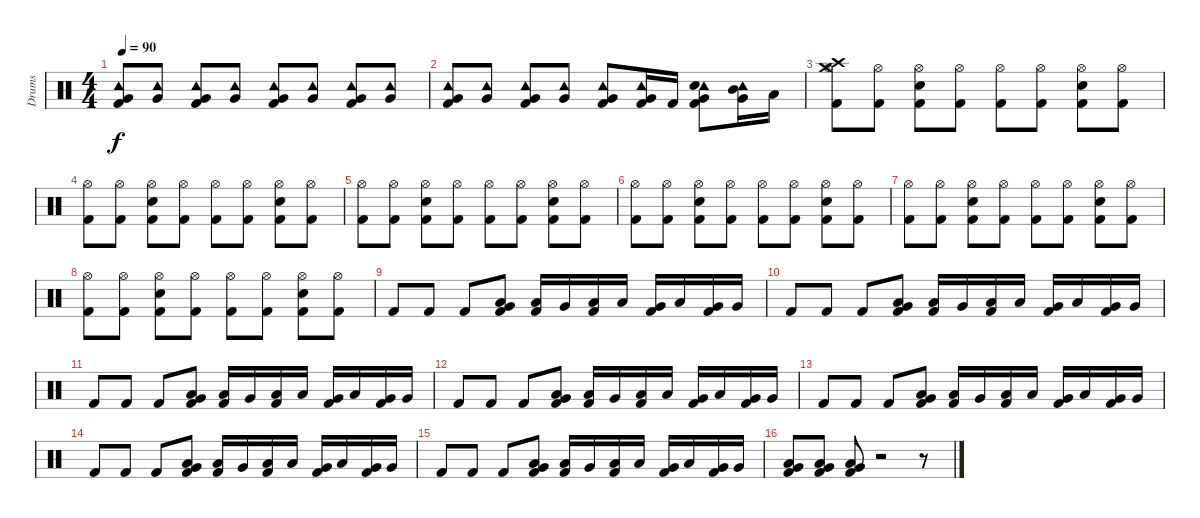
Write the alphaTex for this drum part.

\track ("Drums" "Drums") {instrument percussion}
\staff {score}
\articulation defaults
\ts (4 4)
\tempo 90
\clef neutral
\ks c
("Tambourine (hit)" "Kick (hit) 2" "Very Low Tom (hit)").8{dy f} ("Tambourine (hit)" "Very Low Tom (hit)").8 ("Tambourine (hit)" "Kick (hit) 2" "Very Low Tom (hit)").8 ("Tambourine (hit)" "Very Low Tom (hit)").8 ("Tambourine (hit)" "Kick (hit) 2" "Very Low Tom (hit)").8 ("Tambourine (hit)" "Very Low Tom (hit)").8 ("Tambourine (hit)" "Kick (hit) 2" "Very Low Tom (hit)").8 ("Tambourine (hit)" "Very Low Tom (hit)").8 |
("Tambourine (hit)" "Kick (hit) 2" "Very Low Tom (hit)").8 ("Tambourine (hit)" "Very Low Tom (hit)").8 ("Tambourine (hit)" "Kick (hit) 2" "Very Low Tom (hit)").8 ("Tambourine (hit)" "Very Low Tom (hit)").8 ("Tambourine (hit)" "Kick (hit) 2" "Very Low Tom (hit)").8 ("Tambourine (hit)" "Kick (hit) 2" "Very Low Tom (hit)").16 "Kick (hit) 2".16 ("Tambourine (hit)" "Snare (hit) 2" "Very Low Tom (hit)" "Kick (hit) 2").8 ("Tambourine (hit)" "Mid Tom (hit)" "Very Low Tom (hit)").16 "Low Tom (hit)".16 |
("Crash medium (hit)" "Crash high (hit)" "Kick (hit) 2" "Hi-Hat (open)").8 ("Kick (hit) 2" "Hi-Hat (open)").8 ("Snare (hit) 2" "Kick (hit) 2" "Hi-Hat (open)").8 ("Kick (hit) 2" "Hi-Hat (open)").8 ("Kick (hit) 2" "Hi-Hat (open)").8 ("Kick (hit) 2" "Hi-Hat (open)").8 ("Kick (hit) 2" "Snare (hit) 2" "Hi-Hat (open)").8 ("Kick (hit) 2" "Hi-Hat (open)").8 |
("Kick (hit) 2" "Hi-Hat (open)").8 ("Kick (hit) 2" "Hi-Hat (open)").8 ("Kick (hit) 2" "Snare (hit) 2" "Hi-Hat (open)").8 ("Kick (hit) 2" "Hi-Hat (open)").8 ("Kick (hit) 2" "Hi-Hat (open)").8 ("Kick (hit) 2" "Hi-Hat (open)").8 ("Kick (hit) 2" "Snare (hit) 2" "Hi-Hat (open)").8 ("Kick (hit) 2" "Hi-Hat (open)").8 |
("Kick (hit) 2" "Hi-Hat (open)").8 ("Kick (hit) 2" "Hi-Hat (open)").8 ("Kick (hit) 2" "Snare (hit) 2" "Hi-Hat (open)").8 ("Kick (hit) 2" "Hi-Hat (open)").8 ("Kick (hit) 2" "Hi-Hat (open)").8 ("Kick (hit) 2" "Hi-Hat (open)").8 ("Kick (hit) 2" "Snare (hit) 2" "Hi-Hat (open)").8 ("Kick (hit) 2" "Hi-Hat (open)").8 |
("Kick (hit) 2" "Hi-Hat (open)").8 ("Kick (hit) 2" "Hi-Hat (open)").8 ("Kick (hit) 2" "Snare (hit) 2" "Hi-Hat (open)").8 ("Kick (hit) 2" "Hi-Hat (open)").8 ("Kick (hit) 2" "Hi-Hat (open)").8 ("Kick (hit) 2" "Hi-Hat (open)").8 ("Kick (hit) 2" "Snare (hit) 2" "Hi-Hat (open)").8 ("Kick (hit) 2" "Hi-Hat (open)").8 |
("Kick (hit) 2" "Hi-Hat (open)").8 ("Kick (hit) 2" "Hi-Hat (open)").8 ("Kick (hit) 2" "Snare (hit) 2" "Hi-Hat (open)").8 ("Kick (hit) 2" "Hi-Hat (open)").8 ("Kick (hit) 2" "Hi-Hat (open)").8 ("Kick (hit) 2" "Hi-Hat (open)").8 ("Kick (hit) 2" "Snare (hit) 2" "Hi-Hat (open)").8 ("Kick (hit) 2" "Hi-Hat (open)").8 |
("Kick (hit) 2" "Hi-Hat (open)").8 ("Kick (hit) 2" "Hi-Hat (open)").8 ("Kick (hit) 2" "Snare (hit) 2" "Hi-Hat (open)").8 ("Kick (hit) 2" "Hi-Hat (open)").8 ("Kick (hit) 2" "Hi-Hat (open)").8 ("Kick (hit) 2" "Hi-Hat (open)").8 ("Kick (hit) 2" "Snare (hit) 2" "Hi-Hat (open)").8 ("Kick (hit) 2" "Hi-Hat (open)").8 |
"Kick (hit) 2".8 "Kick (hit) 2".8 "Kick (hit) 2".8 ("Kick (hit) 2" "Low Floor Tom (hit)" "Very Low Tom (hit)").8 ("Kick (hit) 2" "Low Floor Tom (hit)").16 "Very Low Tom (hit)".16 ("Kick (hit) 2" "Low Tom (hit)").16 "Low Floor Tom (hit)".16 ("Kick (hit) 2" "Very Low Tom (hit)").16 "Low Floor Tom (hit)".16 ("Kick (hit) 2" "Very Low Tom (hit)").16 "Very Low Tom (hit)".16 |
"Kick (hit) 2".8 "Kick (hit) 2".8 "Kick (hit) 2".8 ("Kick (hit) 2" "Low Floor Tom (hit)" "Very Low Tom (hit)").8 ("Kick (hit) 2" "Low Floor Tom (hit)").16 "Very Low Tom (hit)".16 ("Kick (hit) 2" "Low Tom (hit)").16 "Low Floor Tom (hit)".16 ("Kick (hit) 2" "Very Low Tom (hit)").16 "Low Floor Tom (hit)".16 ("Kick (hit) 2" "Very Low Tom (hit)").16 "Very Low Tom (hit)".16 |
"Kick (hit) 2".8 "Kick (hit) 2".8 "Kick (hit) 2".8 ("Kick (hit) 2" "Low Floor Tom (hit)" "Very Low Tom (hit)").8 ("Kick (hit) 2" "Low Floor Tom (hit)").16 "Very Low Tom (hit)".16 ("Kick (hit) 2" "Low Tom (hit)").16 "Low Floor Tom (hit)".16 ("Kick (hit) 2" "Very Low Tom (hit)").16 "Low Floor Tom (hit)".16 ("Kick (hit) 2" "Very Low Tom (hit)").16 "Very Low Tom (hit)".16 |
"Kick (hit) 2".8 "Kick (hit) 2".8 "Kick (hit) 2".8 ("Kick (hit) 2" "Low Floor Tom (hit)" "Very Low Tom (hit)").8 ("Kick (hit) 2" "Low Floor Tom (hit)").16 "Very Low Tom (hit)".16 ("Kick (hit) 2" "Low Tom (hit)").16 "Low Floor Tom (hit)".16 ("Kick (hit) 2" "Very Low Tom (hit)").16 "Low Floor Tom (hit)".16 ("Kick (hit) 2" "Very Low Tom (hit)").16 "Very Low Tom (hit)".16 |
"Kick (hit) 2".8 "Kick (hit) 2".8 "Kick (hit) 2".8 ("Kick (hit) 2" "Low Floor Tom (hit)" "Very Low Tom (hit)").8 ("Kick (hit) 2" "Low Floor Tom (hit)").16 "Very Low Tom (hit)".16 ("Kick (hit) 2" "Low Tom (hit)").16 "Low Floor Tom (hit)".16 ("Kick (hit) 2" "Very Low Tom (hit)").16 "Low Floor Tom (hit)".16 ("Kick (hit) 2" "Very Low Tom (hit)").16 "Very Low Tom (hit)".16 |
"Kick (hit) 2".8 "Kick (hit) 2".8 "Kick (hit) 2".8 ("Kick (hit) 2" "Low Floor Tom (hit)" "Very Low Tom (hit)").8 ("Kick (hit) 2" "Low Floor Tom (hit)").16 "Very Low Tom (hit)".16 ("Kick (hit) 2" "Low Tom (hit)").16 "Low Floor Tom (hit)".16 ("Kick (hit) 2" "Very Low Tom (hit)").16 "Low Floor Tom (hit)".16 ("Kick (hit) 2" "Very Low Tom (hit)").16 "Very Low Tom (hit)".16 |
"Kick (hit) 2".8 "Kick (hit) 2".8 "Kick (hit) 2".8 ("Kick (hit) 2" "Low Floor Tom (hit)" "Very Low Tom (hit)").8 ("Kick (hit) 2" "Low Floor Tom (hit)").16 "Very Low Tom (hit)".16 ("Kick (hit) 2" "Low Tom (hit)").16 "Low Floor Tom (hit)".16 ("Kick (hit) 2" "Very Low Tom (hit)").16 "Low Floor Tom (hit)".16 ("Kick (hit) 2" "Very Low Tom (hit)").16 "Very Low Tom (hit)".16 |
("Low Floor Tom (hit)" "Very Low Tom (hit)" "Kick (hit) 2").8 ("Low Floor Tom (hit)" "Very Low Tom (hit)" "Kick (hit) 2").8 ("Low Floor Tom (hit)" "Very Low Tom (hit)" "Kick (hit) 2").8 r.2 r.8
